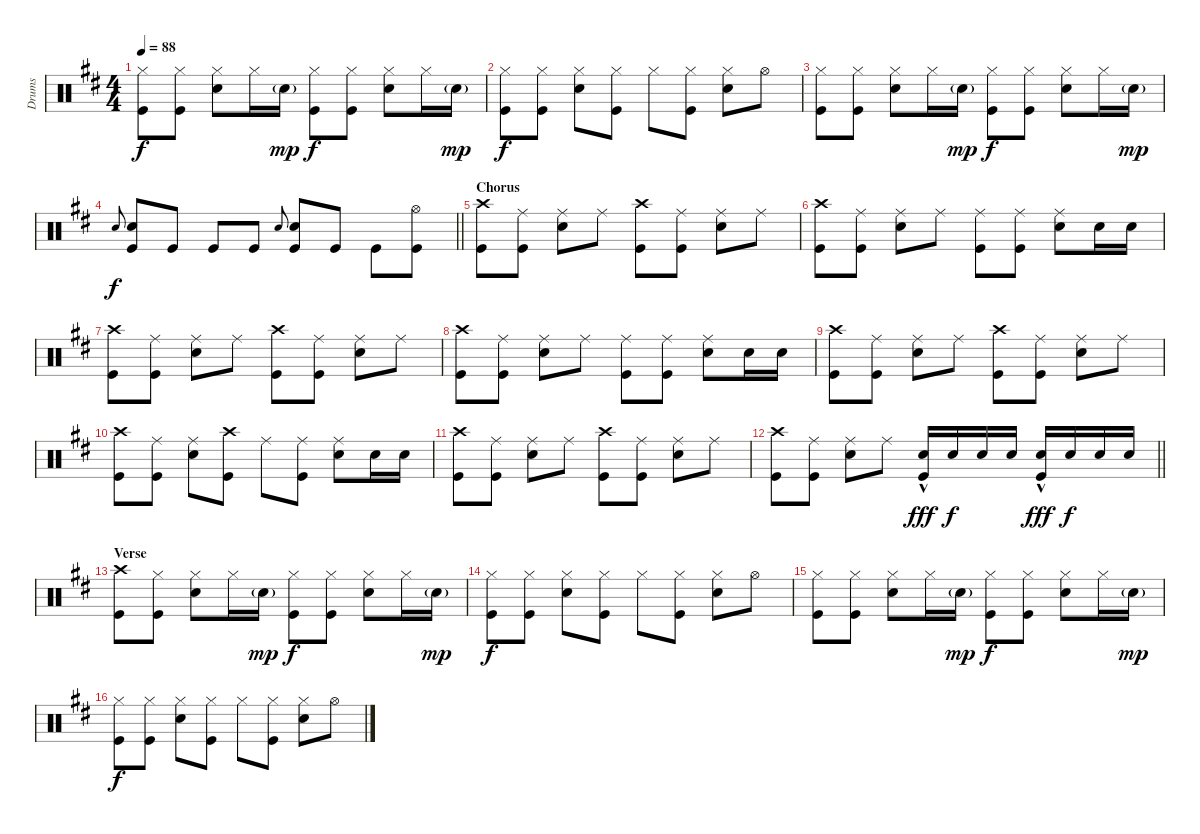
\track ("Drums" "Drums") {instrument percussion}
\staff {score}
\articulation defaults
\ts (4 4)
\tempo 88
\clef neutral
\ks bminor
("Kick (hit)" "Hi-Hat (closed)").8{dy f} ("Kick (hit)" "Hi-Hat (closed)").8 ("Snare (hit) 2" "Hi-Hat (closed)").8 "Hi-Hat (closed)".16 "Snare (hit) 2"{g}.16{dy mp} ("Kick (hit)" "Hi-Hat (closed)").8{dy f} ("Kick (hit)" "Hi-Hat (closed)").8 ("Snare (hit) 2" "Hi-Hat (closed)").8 "Hi-Hat (closed)".16 "Snare (hit) 2"{g}.16{dy mp} |
("Kick (hit)" "Hi-Hat (closed)").8{dy f} ("Kick (hit)" "Hi-Hat (closed)").8 ("Snare (hit) 2" "Hi-Hat (closed)").8 ("Kick (hit)" "Hi-Hat (closed)").8 "Hi-Hat (closed)".8 ("Kick (hit)" "Hi-Hat (closed)").8 ("Snare (hit) 2" "Hi-Hat (closed)").8 "Hi-Hat (open)".8 |
("Kick (hit)" "Hi-Hat (closed)").8 ("Kick (hit)" "Hi-Hat (closed)").8 ("Snare (hit) 2" "Hi-Hat (closed)").8 "Hi-Hat (closed)".16 "Snare (hit) 2"{g}.16{dy mp} ("Kick (hit)" "Hi-Hat (closed)").8{dy f} ("Kick (hit)" "Hi-Hat (closed)").8 ("Snare (hit) 2" "Hi-Hat (closed)").8 "Hi-Hat (closed)".16 "Snare (hit) 2"{g}.16{dy mp} |
\barLineRight lightlight "Snare (hit) 2".8{gr onbeat dy f}
("Snare (hit) 2" "Kick (hit)").8 "Kick (hit)".8 "Kick (hit)".8 "Kick (hit)".8 "Snare (hit) 2".8{gr onbeat} ("Snare (hit) 2" "Kick (hit)").8 "Kick (hit)".8 "Kick (hit)".8 ("Hi-Hat (open)" "Kick (hit)").8 |
\section ("" "Chorus")
("Crash high (hit)" "Kick (hit)").8 ("Ride (middle)" "Kick (hit)").8 ("Ride (middle)" "Snare (hit) 2").8 "Ride (middle)".8 ("Crash high (hit)" "Kick (hit)").8 ("Ride (middle)" "Kick (hit)").8 ("Ride (middle)" "Snare (hit) 2").8 "Ride (middle)".8 |
("Crash high (hit)" "Kick (hit)").8 ("Ride (middle)" "Kick (hit)").8 ("Ride (middle)" "Snare (hit) 2").8 "Ride (middle)".8 ("Ride (middle)" "Kick (hit)").8 ("Ride (middle)" "Kick (hit)").8 ("Ride (middle)" "Snare (hit) 2").8 "Snare (hit) 2".16 "Snare (hit) 2".16 |
("Crash high (hit)" "Kick (hit)").8 ("Ride (middle)" "Kick (hit)").8 ("Ride (middle)" "Snare (hit) 2").8 "Ride (middle)".8 ("Crash high (hit)" "Kick (hit)").8 ("Ride (middle)" "Kick (hit)").8 ("Ride (middle)" "Snare (hit) 2").8 "Ride (middle)".8 |
("Crash high (hit)" "Kick (hit)").8 ("Ride (middle)" "Kick (hit)").8 ("Ride (middle)" "Snare (hit) 2").8 "Ride (middle)".8 ("Ride (middle)" "Kick (hit)").8 ("Ride (middle)" "Kick (hit)").8 ("Ride (middle)" "Snare (hit) 2").8 "Snare (hit) 2".16 "Snare (hit) 2".16 |
("Crash high (hit)" "Kick (hit)").8 ("Ride (middle)" "Kick (hit)").8 ("Ride (middle)" "Snare (hit) 2").8 "Ride (middle)".8 ("Crash high (hit)" "Kick (hit)").8 ("Ride (middle)" "Kick (hit)").8 ("Ride (middle)" "Snare (hit) 2").8 "Ride (middle)".8 |
("Crash high (hit)" "Kick (hit)").8 ("Ride (middle)" "Kick (hit)").8 ("Ride (middle)" "Snare (hit) 2").8 ("Crash high (hit)" "Kick (hit)").8 "Ride (middle)".8 ("Ride (middle)" "Kick (hit)").8 ("Ride (middle)" "Snare (hit) 2").8 "Snare (hit) 2".16 "Snare (hit) 2".16 |
("Crash high (hit)" "Kick (hit)").8 ("Ride (middle)" "Kick (hit)").8 ("Ride (middle)" "Snare (hit) 2").8 "Ride (middle)".8 ("Crash high (hit)" "Kick (hit)").8 ("Ride (middle)" "Kick (hit)").8 ("Ride (middle)" "Snare (hit) 2").8 "Ride (middle)".8 |
\barLineRight lightlight
("Crash high (hit)" "Kick (hit)").8 ("Ride (middle)" "Kick (hit)").8 ("Ride (middle)" "Snare (hit) 2").8 "Ride (middle)".8 ("Snare (hit) 2"{hac} "Kick (hit)").16{dy fff} "Snare (hit) 2".16{dy f} "Snare (hit) 2".16 "Snare (hit) 2".16 ("Snare (hit) 2"{hac} "Kick (hit)").16{dy fff} "Snare (hit) 2".16{dy f} "Snare (hit) 2".16 "Snare (hit) 2".16 |
\section ("" "Verse")
("Kick (hit)" "Crash high (hit)").8 ("Kick (hit)" "Hi-Hat (closed)").8 ("Snare (hit) 2" "Hi-Hat (closed)").8 "Hi-Hat (closed)".16 "Snare (hit) 2"{g}.16{dy mp} ("Kick (hit)" "Hi-Hat (closed)").8{dy f} ("Kick (hit)" "Hi-Hat (closed)").8 ("Snare (hit) 2" "Hi-Hat (closed)").8 "Hi-Hat (closed)".16 "Snare (hit) 2"{g}.16{dy mp} |
("Kick (hit)" "Hi-Hat (closed)").8{dy f} ("Kick (hit)" "Hi-Hat (closed)").8 ("Snare (hit) 2" "Hi-Hat (closed)").8 ("Kick (hit)" "Hi-Hat (closed)").8 "Hi-Hat (closed)".8 ("Kick (hit)" "Hi-Hat (closed)").8 ("Snare (hit) 2" "Hi-Hat (closed)").8 "Hi-Hat (open)".8 |
("Kick (hit)" "Hi-Hat (closed)").8 ("Kick (hit)" "Hi-Hat (closed)").8 ("Snare (hit) 2" "Hi-Hat (closed)").8 "Hi-Hat (closed)".16 "Snare (hit) 2"{g}.16{dy mp} ("Kick (hit)" "Hi-Hat (closed)").8{dy f} ("Kick (hit)" "Hi-Hat (closed)").8 ("Snare (hit) 2" "Hi-Hat (closed)").8 "Hi-Hat (closed)".16 "Snare (hit) 2"{g}.16{dy mp} |
("Kick (hit)" "Hi-Hat (closed)").8{dy f} ("Kick (hit)" "Hi-Hat (closed)").8 ("Snare (hit) 2" "Hi-Hat (closed)").8 ("Kick (hit)" "Hi-Hat (closed)").8 "Hi-Hat (closed)".8 ("Kick (hit)" "Hi-Hat (closed)").8 ("Snare (hit) 2" "Hi-Hat (closed)").8 "Hi-Hat (open)".8
